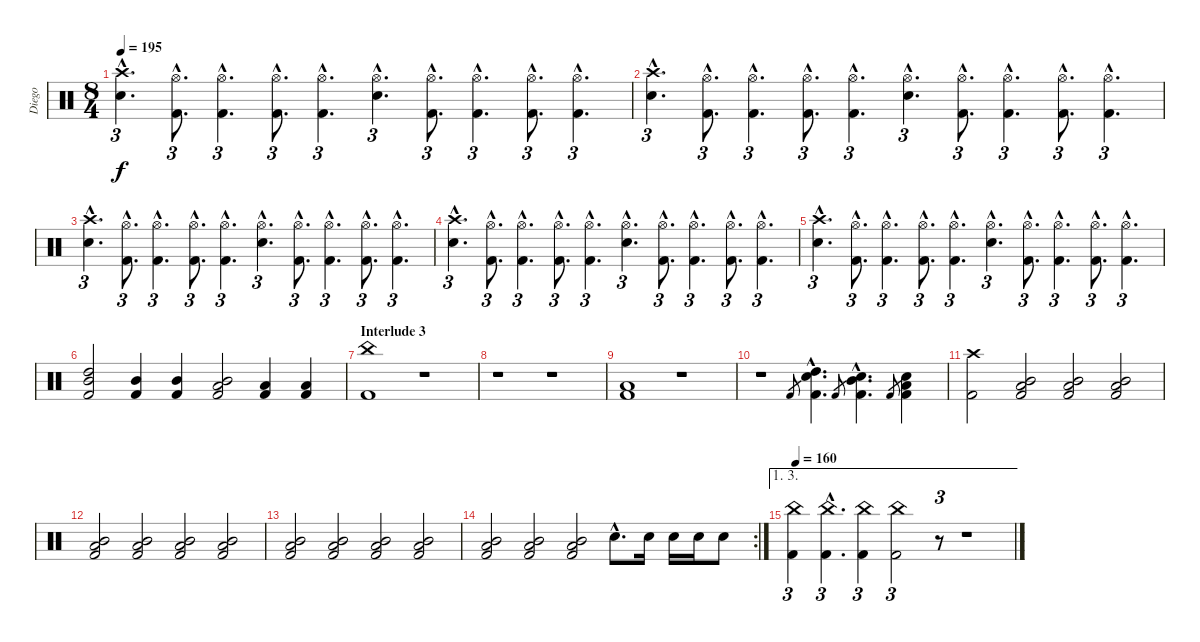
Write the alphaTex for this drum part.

\track ("Diego" "Diego") {instrument percussion}
\staff {score}
\articulation defaults
\ts (8 4)
\tempo 195
\clef neutral
\ks c
("Crash high (hit)"{hac} "Electric Snare (hit)"{hac}).4{d tu (3 2) dy f} ("Hi-Hat (open)"{hac} "Kick (hit) 2"{hac}).8{d tu (3 2)} ("Hi-Hat (open)"{hac} "Kick (hit) 2"{hac}).4{d tu (3 2)} ("Hi-Hat (open)"{hac} "Kick (hit) 2"{hac}).8{d tu (3 2)} ("Hi-Hat (open)"{hac} "Kick (hit) 2"{hac}).4{d tu (3 2)} ("Hi-Hat (open)"{hac} "Electric Snare (hit)"{hac}).4{d tu (3 2)} ("Hi-Hat (open)"{hac} "Kick (hit) 2"{hac}).8{d tu (3 2)} ("Hi-Hat (open)"{hac} "Kick (hit) 2"{hac}).4{d tu (3 2)} ("Hi-Hat (open)"{hac} "Kick (hit) 2"{hac}).8{d tu (3 2)} ("Hi-Hat (open)"{hac} "Kick (hit) 2"{hac}).4{d tu (3 2)} |
("Crash high (hit)"{hac} "Electric Snare (hit)"{hac}).4{d tu (3 2)} ("Hi-Hat (open)"{hac} "Kick (hit) 2"{hac}).8{d tu (3 2)} ("Hi-Hat (open)"{hac} "Kick (hit) 2"{hac}).4{d tu (3 2)} ("Hi-Hat (open)"{hac} "Kick (hit) 2"{hac}).8{d tu (3 2)} ("Hi-Hat (open)"{hac} "Kick (hit) 2"{hac}).4{d tu (3 2)} ("Hi-Hat (open)"{hac} "Electric Snare (hit)"{hac}).4{d tu (3 2)} ("Hi-Hat (open)"{hac} "Kick (hit) 2"{hac}).8{d tu (3 2)} ("Hi-Hat (open)"{hac} "Kick (hit) 2"{hac}).4{d tu (3 2)} ("Hi-Hat (open)"{hac} "Kick (hit) 2"{hac}).8{d tu (3 2)} ("Hi-Hat (open)"{hac} "Kick (hit) 2"{hac}).4{d tu (3 2)} |
("Crash high (hit)"{hac} "Electric Snare (hit)"{hac}).4{d tu (3 2)} ("Hi-Hat (open)"{hac} "Kick (hit) 2"{hac}).8{d tu (3 2)} ("Hi-Hat (open)"{hac} "Kick (hit) 2"{hac}).4{d tu (3 2)} ("Hi-Hat (open)"{hac} "Kick (hit) 2"{hac}).8{d tu (3 2)} ("Hi-Hat (open)"{hac} "Kick (hit) 2"{hac}).4{d tu (3 2)} ("Hi-Hat (open)"{hac} "Electric Snare (hit)"{hac}).4{d tu (3 2)} ("Hi-Hat (open)"{hac} "Kick (hit) 2"{hac}).8{d tu (3 2)} ("Hi-Hat (open)"{hac} "Kick (hit) 2"{hac}).4{d tu (3 2)} ("Hi-Hat (open)"{hac} "Kick (hit) 2"{hac}).8{d tu (3 2)} ("Hi-Hat (open)"{hac} "Kick (hit) 2"{hac}).4{d tu (3 2)} |
("Crash high (hit)"{hac} "Electric Snare (hit)"{hac}).4{d tu (3 2)} ("Hi-Hat (open)"{hac} "Kick (hit) 2"{hac}).8{d tu (3 2)} ("Hi-Hat (open)"{hac} "Kick (hit) 2"{hac}).4{d tu (3 2)} ("Hi-Hat (open)"{hac} "Kick (hit) 2"{hac}).8{d tu (3 2)} ("Hi-Hat (open)"{hac} "Kick (hit) 2"{hac}).4{d tu (3 2)} ("Hi-Hat (open)"{hac} "Electric Snare (hit)"{hac}).4{d tu (3 2)} ("Hi-Hat (open)"{hac} "Kick (hit) 2"{hac}).8{d tu (3 2)} ("Hi-Hat (open)"{hac} "Kick (hit) 2"{hac}).4{d tu (3 2)} ("Hi-Hat (open)"{hac} "Kick (hit) 2"{hac}).8{d tu (3 2)} ("Hi-Hat (open)"{hac} "Kick (hit) 2"{hac}).4{d tu (3 2)} |
("Crash high (hit)"{hac} "Electric Snare (hit)"{hac}).4{d tu (3 2)} ("Hi-Hat (open)"{hac} "Kick (hit) 2"{hac}).8{d tu (3 2)} ("Hi-Hat (open)"{hac} "Kick (hit) 2"{hac}).4{d tu (3 2)} ("Hi-Hat (open)"{hac} "Kick (hit) 2"{hac}).8{d tu (3 2)} ("Hi-Hat (open)"{hac} "Kick (hit) 2"{hac}).4{d tu (3 2)} ("Hi-Hat (open)"{hac} "Electric Snare (hit)"{hac}).4{d tu (3 2)} ("Hi-Hat (open)"{hac} "Kick (hit) 2"{hac}).8{d tu (3 2)} ("Hi-Hat (open)"{hac} "Kick (hit) 2"{hac}).4{d tu (3 2)} ("Hi-Hat (open)"{hac} "Kick (hit) 2"{hac}).8{d tu (3 2)} ("Hi-Hat (open)"{hac} "Kick (hit) 2"{hac}).4{d tu (3 2)} |
("High Tom (hit)" "Mid Tom (hit)" "Kick (hit) 2").2 ("Mid Tom (hit)" "Kick (hit) 2").4 ("Mid Tom (hit)" "Kick (hit) 2").4 ("Low Tom (hit)" "Mid Tom (hit)" "Kick (hit) 2").2 ("Low Tom (hit)" "Kick (hit) 2").4 ("Low Tom (hit)" "Kick (hit) 2").4 |
\section ("" "Interlude 3")
("China (hit)" "Kick (hit) 2").1 r.1 |
r.1 r.1 |
("Low Tom (hit)" "Kick (hit) 2").1 r.1 |
r.1 "Kick (hit) 2".8{gr} ("High Tom (hit)"{hac} "Electric Snare (hit)"{hac} "Kick (hit) 2"{hac}).4{d} "Kick (hit) 2".8{gr} ("Mid Tom (hit)"{hac} "Electric Snare (hit)"{hac} "Kick (hit) 2"{hac}).4{d} "Kick (hit) 2".8{gr} ("Low Tom (hit)" "Electric Snare (hit)" "Kick (hit) 2").4 |
("Crash high (hit)" "Kick (hit) 2").2{volume 16} ("Low Tom (hit)" "Mid Tom (hit)" "Kick (hit) 2").2{volume 16} ("Low Tom (hit)" "Mid Tom (hit)" "Kick (hit) 2").2 ("Low Tom (hit)" "Mid Tom (hit)" "Kick (hit) 2").2 |
("Low Tom (hit)" "Mid Tom (hit)" "Kick (hit) 2").2{volume 16} ("Low Tom (hit)" "Mid Tom (hit)" "Kick (hit) 2").2{volume 16} ("Low Tom (hit)" "Mid Tom (hit)" "Kick (hit) 2").2 ("Low Tom (hit)" "Mid Tom (hit)" "Kick (hit) 2").2 |
("Low Tom (hit)" "Mid Tom (hit)" "Kick (hit) 2").2{volume 16} ("Low Tom (hit)" "Mid Tom (hit)" "Kick (hit) 2").2{volume 16} ("Low Tom (hit)" "Mid Tom (hit)" "Kick (hit) 2").2 ("Low Tom (hit)" "Mid Tom (hit)" "Kick (hit) 2").2 |
\rc 2
("Low Tom (hit)" "Mid Tom (hit)" "Kick (hit) 2").2{volume 16} ("Low Tom (hit)" "Mid Tom (hit)" "Kick (hit) 2").2{volume 16} ("Low Tom (hit)" "Mid Tom (hit)" "Kick (hit) 2").2 "Electric Snare (hit)"{hac}.8{d} "Electric Snare (hit)".16 "Electric Snare (hit)".16 "Electric Snare (hit)".16 "Electric Snare (hit)".8 |
\ae (1 3)
\tempo 160
("China (hit)" "Kick (hit) 2").4{tu (3 2)} ("China (hit)"{hac} "Kick (hit) 2"{hac}).4{d tu (3 2)} ("China (hit)" "Kick (hit) 2").4{tu (3 2)} ("China (hit)" "Kick (hit) 2").2{tu (3 2)} r.8{tu (3 2)} r.1
